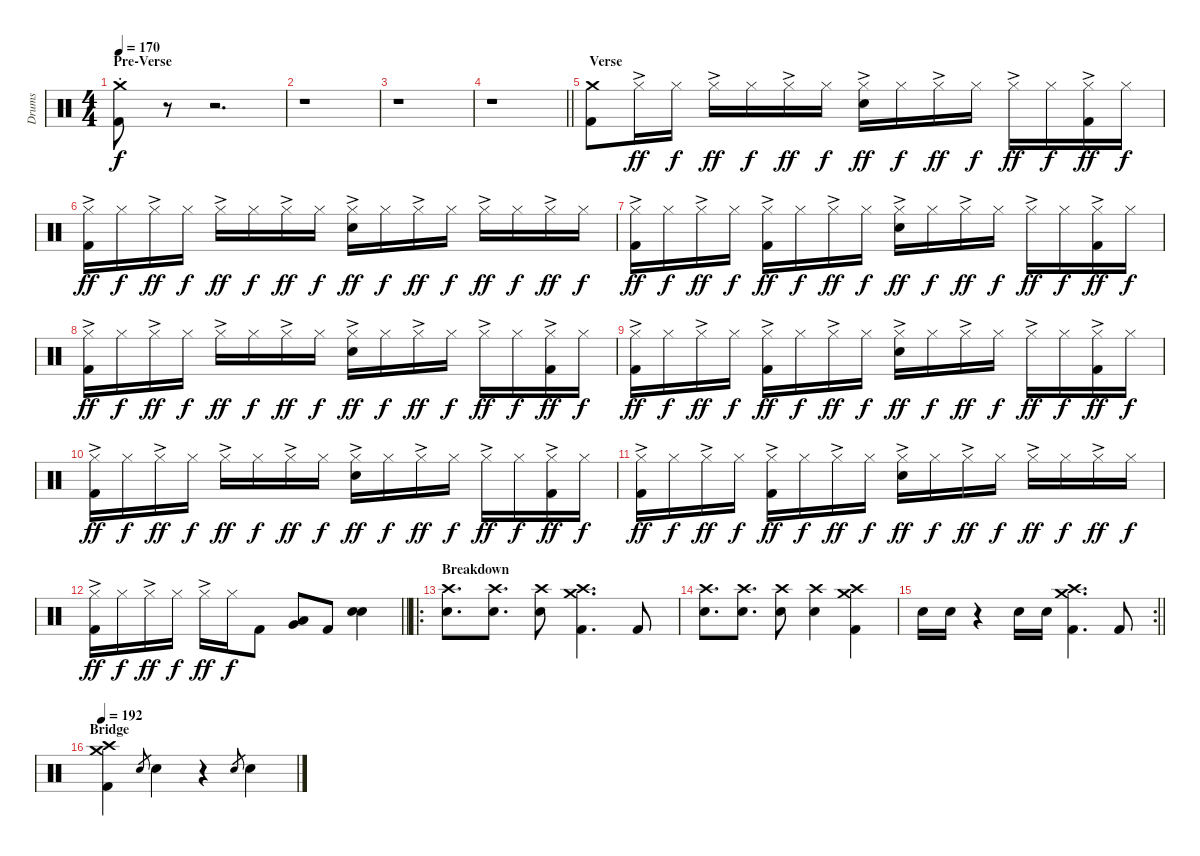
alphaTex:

\track ("Drums" "Drums") {instrument percussion}
\staff {score}
\articulation defaults
\ts (4 4)
\section ("" "Pre-Verse")
\tempo 170
\clef neutral
\ks c
("Crash medium (hit)"{st} "Kick (hit) 2").8{dy f} r.8{volume 0} r.2{d} |
r.1 |
r.1 |
\barLineRight lightlight
r.1 |
\section ("" " Verse")
("Crash medium (hit)" "Kick (hit) 2").8{volume 14} "Hi-Hat (closed)"{ac}.16{dy ff} "Hi-Hat (closed)".16{dy f} "Hi-Hat (closed)"{ac}.16{dy ff} "Hi-Hat (closed)".16{dy f} "Hi-Hat (closed)"{ac}.16{dy ff} "Hi-Hat (closed)".16{dy f} ("Hi-Hat (closed)"{ac} "Electric Snare (hit)").16{dy ff} "Hi-Hat (closed)".16{dy f} "Hi-Hat (closed)"{ac}.16{dy ff} "Hi-Hat (closed)".16{dy f} "Hi-Hat (closed)"{ac}.16{dy ff} "Hi-Hat (closed)".16{dy f} ("Hi-Hat (closed)"{ac} "Kick (hit) 2").16{dy ff} "Hi-Hat (closed)".16{dy f} |
("Hi-Hat (closed)"{ac} "Kick (hit) 2").16{dy ff} "Hi-Hat (closed)".16{dy f} "Hi-Hat (closed)"{ac}.16{dy ff} "Hi-Hat (closed)".16{dy f} "Hi-Hat (closed)"{ac}.16{dy ff} "Hi-Hat (closed)".16{dy f} "Hi-Hat (closed)"{ac}.16{dy ff} "Hi-Hat (closed)".16{dy f} ("Hi-Hat (closed)"{ac} "Electric Snare (hit)").16{dy ff} "Hi-Hat (closed)".16{dy f} "Hi-Hat (closed)"{ac}.16{dy ff} "Hi-Hat (closed)".16{dy f} "Hi-Hat (closed)"{ac}.16{dy ff} "Hi-Hat (closed)".16{dy f} "Hi-Hat (closed)"{ac}.16{dy ff} "Hi-Hat (closed)".16{dy f} |
("Hi-Hat (closed)"{ac} "Kick (hit) 2").16{dy ff} "Hi-Hat (closed)".16{dy f} "Hi-Hat (closed)"{ac}.16{dy ff} "Hi-Hat (closed)".16{dy f} ("Hi-Hat (closed)"{ac} "Kick (hit) 2").16{dy ff} "Hi-Hat (closed)".16{dy f} "Hi-Hat (closed)"{ac}.16{dy ff} "Hi-Hat (closed)".16{dy f} ("Hi-Hat (closed)"{ac} "Electric Snare (hit)").16{dy ff} "Hi-Hat (closed)".16{dy f} "Hi-Hat (closed)"{ac}.16{dy ff} "Hi-Hat (closed)".16{dy f} "Hi-Hat (closed)"{ac}.16{dy ff} "Hi-Hat (closed)".16{dy f} ("Hi-Hat (closed)"{ac} "Kick (hit) 2").16{dy ff} "Hi-Hat (closed)".16{dy f} |
("Hi-Hat (closed)"{ac} "Kick (hit) 2").16{dy ff} "Hi-Hat (closed)".16{dy f} "Hi-Hat (closed)"{ac}.16{dy ff} "Hi-Hat (closed)".16{dy f} "Hi-Hat (closed)"{ac}.16{dy ff} "Hi-Hat (closed)".16{dy f} "Hi-Hat (closed)"{ac}.16{dy ff} "Hi-Hat (closed)".16{dy f} ("Hi-Hat (closed)"{ac} "Electric Snare (hit)").16{dy ff} "Hi-Hat (closed)".16{dy f} "Hi-Hat (closed)"{ac}.16{dy ff} "Hi-Hat (closed)".16{dy f} "Hi-Hat (closed)"{ac}.16{dy ff} "Hi-Hat (closed)".16{dy f} ("Hi-Hat (closed)"{ac} "Kick (hit) 2").16{dy ff} "Hi-Hat (closed)".16{dy f} |
("Hi-Hat (closed)"{ac} "Kick (hit) 2").16{dy ff} "Hi-Hat (closed)".16{dy f} "Hi-Hat (closed)"{ac}.16{dy ff} "Hi-Hat (closed)".16{dy f} ("Hi-Hat (closed)"{ac} "Kick (hit) 2").16{dy ff} "Hi-Hat (closed)".16{dy f} "Hi-Hat (closed)"{ac}.16{dy ff} "Hi-Hat (closed)".16{dy f} ("Hi-Hat (closed)"{ac} "Electric Snare (hit)").16{dy ff} "Hi-Hat (closed)".16{dy f} "Hi-Hat (closed)"{ac}.16{dy ff} "Hi-Hat (closed)".16{dy f} "Hi-Hat (closed)"{ac}.16{dy ff} "Hi-Hat (closed)".16{dy f} ("Hi-Hat (closed)"{ac} "Kick (hit) 2").16{dy ff} "Hi-Hat (closed)".16{dy f} |
("Hi-Hat (closed)"{ac} "Kick (hit) 2").16{dy ff} "Hi-Hat (closed)".16{dy f} "Hi-Hat (closed)"{ac}.16{dy ff} "Hi-Hat (closed)".16{dy f} "Hi-Hat (closed)"{ac}.16{dy ff} "Hi-Hat (closed)".16{dy f} "Hi-Hat (closed)"{ac}.16{dy ff} "Hi-Hat (closed)".16{dy f} ("Hi-Hat (closed)"{ac} "Electric Snare (hit)").16{dy ff} "Hi-Hat (closed)".16{dy f} "Hi-Hat (closed)"{ac}.16{dy ff} "Hi-Hat (closed)".16{dy f} "Hi-Hat (closed)"{ac}.16{dy ff} "Hi-Hat (closed)".16{dy f} ("Hi-Hat (closed)"{ac} "Kick (hit) 2").16{dy ff} "Hi-Hat (closed)".16{dy f} |
("Hi-Hat (closed)"{ac} "Kick (hit) 2").16{dy ff} "Hi-Hat (closed)".16{dy f} "Hi-Hat (closed)"{ac}.16{dy ff} "Hi-Hat (closed)".16{dy f} ("Hi-Hat (closed)"{ac} "Kick (hit) 2").16{dy ff} "Hi-Hat (closed)".16{dy f} "Hi-Hat (closed)"{ac}.16{dy ff} "Hi-Hat (closed)".16{dy f} ("Hi-Hat (closed)"{ac} "Electric Snare (hit)").16{dy ff} "Hi-Hat (closed)".16{dy f} "Hi-Hat (closed)"{ac}.16{dy ff} "Hi-Hat (closed)".16{dy f} "Hi-Hat (closed)"{ac}.16{dy ff} "Hi-Hat (closed)".16{dy f} "Hi-Hat (closed)"{ac}.16{dy ff} "Hi-Hat (closed)".16{dy f} |
\barLineRight lightlight
("Hi-Hat (closed)"{ac} "Kick (hit) 2").16{dy ff} "Hi-Hat (closed)".16{dy f} "Hi-Hat (closed)"{ac}.16{dy ff} "Hi-Hat (closed)".16{dy f} "Hi-Hat (closed)"{ac}.16{dy ff} "Hi-Hat (closed)".16{dy f} "Kick (hit) 2".8 ("Very Low Tom (hit)" "Low Floor Tom (hit)").8 "Kick (hit) 2".8 ("Electric Snare (hit)" "Electric Snare (hit)").4 |
\ro
\section ("" "Breakdown")
("Crash high (hit)" "Electric Snare (hit)").8{d} ("Crash high (hit)" "Electric Snare (hit)").8{d} ("Crash high (hit)" "Electric Snare (hit)").8 ("Crash medium (hit)" "Crash high (hit)" "Kick (hit) 2").4{d} "Kick (hit) 2".8 |
("Crash high (hit)" "Electric Snare (hit)").8{d} ("Crash high (hit)" "Electric Snare (hit)").8{d} ("Crash high (hit)" "Electric Snare (hit)").8 ("Crash high (hit)" "Electric Snare (hit)").4 ("Crash medium (hit)" "Crash high (hit)" "Kick (hit) 2").4 |
\rc 2
\barLineRight lightlight "Electric Snare (hit)".16 "Electric Snare (hit)".16
r.4 "Electric Snare (hit)".16 "Electric Snare (hit)".16 ("Crash medium (hit)" "Crash high (hit)" "Kick (hit) 2").4{d} "Kick (hit) 2".8 |
\section ("" "Bridge")
\tempo 192
("Crash medium (hit)" "Crash high (hit)" "Kick (hit) 2").4 "Electric Snare (hit)".8{gr} "Electric Snare (hit)".4 r.4 "Electric Snare (hit)".8{gr} "Electric Snare (hit)".4
